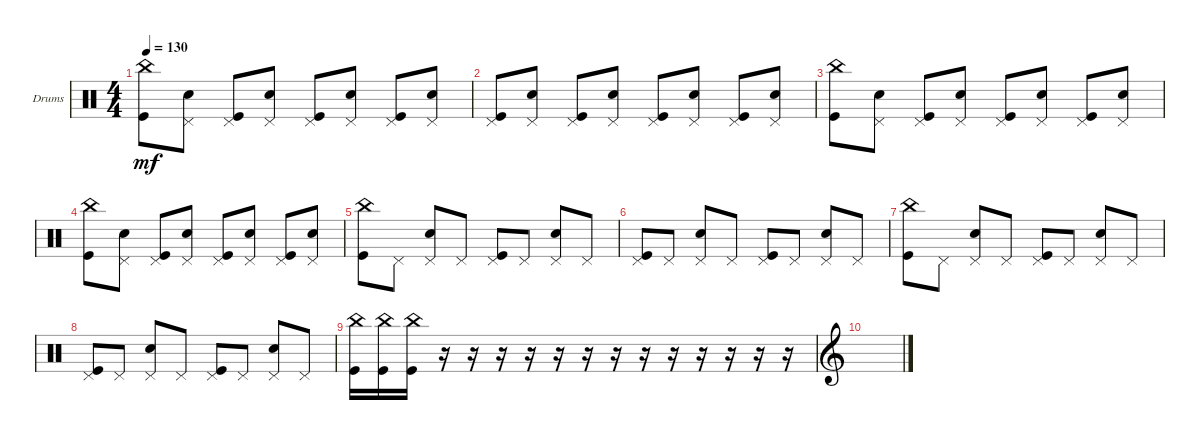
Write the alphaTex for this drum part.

\defaultSystemsLayout 4
\bracketExtendMode groupsimilarinstruments
\firstSystemTrackNameOrientation horizontal
\otherSystemsTrackNameOrientation horizontal
\track ("Drumkit" "Drums") {instrument percussion}
\staff {score}
\articulation defaults
\ts (4 4)
\tempo 130
\clef neutral
\scale
0.333333
\ks c
("Kick (hit)" "China (hit)").8{dy mf} ("Pedal Hi-Hat (hit)" "Snare (hit) 2").8 ("Pedal Hi-Hat (hit)" "Kick (hit)").8 ("Pedal Hi-Hat (hit)" "Snare (hit) 2").8 ("Kick (hit)" "Pedal Hi-Hat (hit)").8 ("Pedal Hi-Hat (hit)" "Snare (hit) 2").8 ("Pedal Hi-Hat (hit)" "Kick (hit)").8 ("Pedal Hi-Hat (hit)" "Snare (hit) 2").8 |
\scale
0.333333 ("Kick (hit)" "Pedal Hi-Hat (hit)").8 ("Pedal Hi-Hat (hit)" "Snare (hit) 2").8 ("Pedal Hi-Hat (hit)" "Kick (hit)").8 ("Pedal Hi-Hat (hit)" "Snare (hit) 2").8 ("Kick (hit)" "Pedal Hi-Hat (hit)").8 ("Pedal Hi-Hat (hit)" "Snare (hit) 2").8 ("Pedal Hi-Hat (hit)" "Kick (hit)").8 ("Pedal Hi-Hat (hit)" "Snare (hit) 2").8 |
\scale
0.333333 ("Kick (hit)" "China (hit)").8 ("Pedal Hi-Hat (hit)" "Snare (hit) 2").8 ("Pedal Hi-Hat (hit)" "Kick (hit)").8 ("Pedal Hi-Hat (hit)" "Snare (hit) 2").8 ("Kick (hit)" "Pedal Hi-Hat (hit)").8 ("Pedal Hi-Hat (hit)" "Snare (hit) 2").8 ("Pedal Hi-Hat (hit)" "Kick (hit)").8 ("Pedal Hi-Hat (hit)" "Snare (hit) 2").8 |
\scale
0.333333 ("Kick (hit)" "China (hit)").8 ("Pedal Hi-Hat (hit)" "Snare (hit) 2").8 ("Pedal Hi-Hat (hit)" "Kick (hit)").8 ("Pedal Hi-Hat (hit)" "Snare (hit) 2").8 ("Kick (hit)" "Pedal Hi-Hat (hit)").8 ("Pedal Hi-Hat (hit)" "Snare (hit) 2").8 ("Pedal Hi-Hat (hit)" "Kick (hit)").8 ("Pedal Hi-Hat (hit)" "Snare (hit) 2").8 |
\scale
0.333333 ("Kick (hit)" "China (hit)").8 "Pedal Hi-Hat (hit)".8 ("Snare (hit) 2" "Pedal Hi-Hat (hit)").8 "Pedal Hi-Hat (hit)".8 ("Kick (hit)" "Pedal Hi-Hat (hit)").8 "Pedal Hi-Hat (hit)".8 ("Snare (hit) 2" "Pedal Hi-Hat (hit)").8 "Pedal Hi-Hat (hit)".8 |
\scale
0.333333 ("Kick (hit)" "Pedal Hi-Hat (hit)").8 "Pedal Hi-Hat (hit)".8 ("Snare (hit) 2" "Pedal Hi-Hat (hit)").8 "Pedal Hi-Hat (hit)".8 ("Kick (hit)" "Pedal Hi-Hat (hit)").8 "Pedal Hi-Hat (hit)".8 ("Snare (hit) 2" "Pedal Hi-Hat (hit)").8 "Pedal Hi-Hat (hit)".8 |
\scale
0.333333 ("Kick (hit)" "China (hit)").8 "Pedal Hi-Hat (hit)".8 ("Snare (hit) 2" "Pedal Hi-Hat (hit)").8 "Pedal Hi-Hat (hit)".8 ("Kick (hit)" "Pedal Hi-Hat (hit)").8 "Pedal Hi-Hat (hit)".8 ("Snare (hit) 2" "Pedal Hi-Hat (hit)").8 "Pedal Hi-Hat (hit)".8 |
\scale
0.333333 ("Kick (hit)" "Pedal Hi-Hat (hit)").8 "Pedal Hi-Hat (hit)".8 ("Snare (hit) 2" "Pedal Hi-Hat (hit)").8 "Pedal Hi-Hat (hit)".8 ("Kick (hit)" "Pedal Hi-Hat (hit)").8 "Pedal Hi-Hat (hit)".8 ("Snare (hit) 2" "Pedal Hi-Hat (hit)").8 "Pedal Hi-Hat (hit)".8 |
\scale
0.333333 ("Kick (hit)" "China (hit)").16 ("Kick (hit)" "China (hit)").16 ("Kick (hit)" "China (hit)").16 r.16 r.16 r.16 r.16 r.16 r.16 r.16 r.16 r.16 r.16 r.16 r.16 r.16 |
\clef g2
\scale
0.333333
